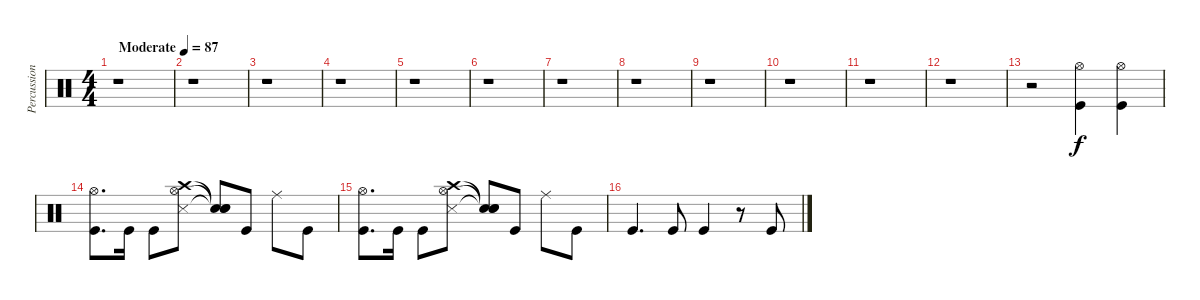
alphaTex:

\track ("Percussion" "Percussion") {instrument percussion}
\staff {score}
\articulation defaults
\ts (4 4)
\tempo (87 "Moderate")
\clef neutral
\ks c
r.1{dy f} |
r.1 |
r.1 |
r.1 |
r.1 |
r.1 |
r.1 |
r.1 |
r.1 |
r.1 |
r.1 |
r.1 |
r.2 ("Hi-Hat (open)" "Kick (hit)").4 ("Hi-Hat (open)" "Kick (hit)").4 |
("Hi-Hat (open)" "Kick (hit)").8{d} "Kick (hit)".16 "Kick (hit)".8 ("Hi-Hat (open)" "Crash high (hit)" "Metronome (hit)").8 ("Snare (hit)"{t} "Snare (hit)"{t} "Snare (hit)"{t}).8 "Kick (hit)".8 "Ride (middle)".8 "Kick (hit)".8 |
("Hi-Hat (open)" "Kick (hit)").8{d} "Kick (hit)".16 "Kick (hit)".8 ("Hi-Hat (open)" "Crash high (hit)" "Metronome (hit)").8 ("Snare (hit)"{t} "Snare (hit)"{t} "Snare (hit)"{t}).8 "Kick (hit)".8 "Ride (middle)".8 "Kick (hit)".8 |
"Kick (hit)".4{d} "Kick (hit)".8 "Kick (hit)".4 r.8 "Kick (hit)".8
